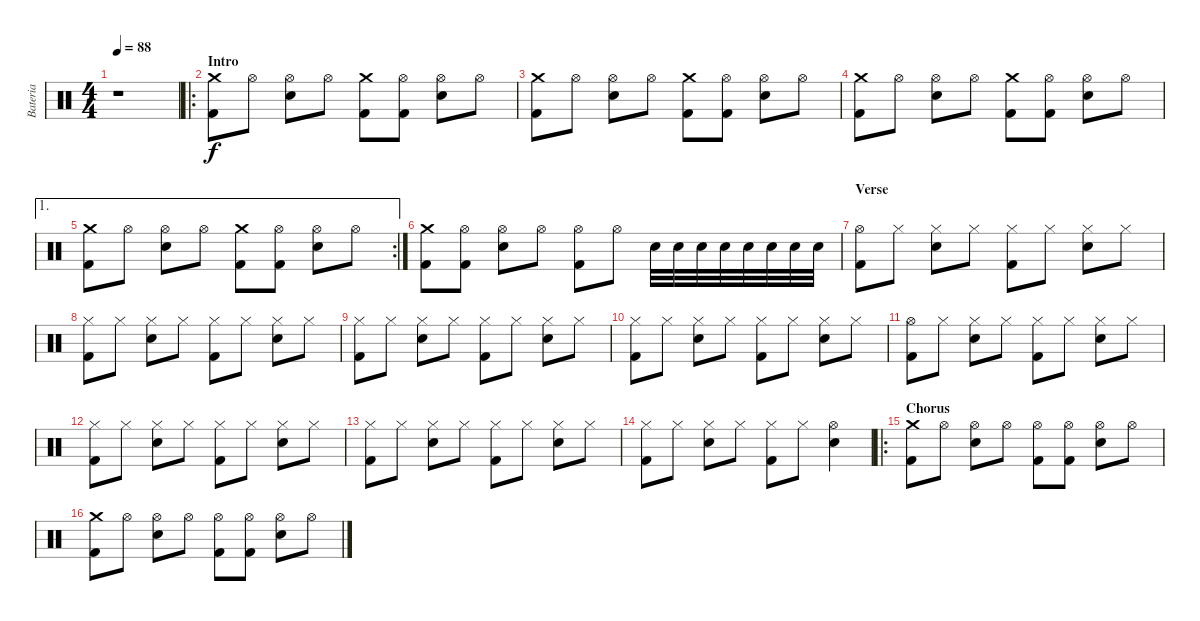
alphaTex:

\track ("Bateria" "Bateria") {instrument percussion}
\staff {score}
\articulation defaults
\ts (4 4)
\tempo 88
\clef neutral
\ks c
r.1{dy f} |
\ro
\section ("" "Intro")
("Crash medium (hit)" "Kick (hit) 2").8 "Hi-Hat (open)".8 ("Hi-Hat (open)" "Electric Snare (hit)").8 "Hi-Hat (open)".8 ("Crash medium (hit)" "Kick (hit) 2").8 ("Hi-Hat (open)" "Kick (hit) 2").8 ("Hi-Hat (open)" "Electric Snare (hit)").8 "Hi-Hat (open)".8 |
("Crash medium (hit)" "Kick (hit) 2").8 "Hi-Hat (open)".8 ("Hi-Hat (open)" "Electric Snare (hit)").8 "Hi-Hat (open)".8 ("Crash medium (hit)" "Kick (hit) 2").8 ("Hi-Hat (open)" "Kick (hit) 2").8 ("Hi-Hat (open)" "Electric Snare (hit)").8 "Hi-Hat (open)".8 |
("Crash medium (hit)" "Kick (hit) 2").8 "Hi-Hat (open)".8 ("Hi-Hat (open)" "Electric Snare (hit)").8 "Hi-Hat (open)".8 ("Crash medium (hit)" "Kick (hit) 2").8 ("Hi-Hat (open)" "Kick (hit) 2").8 ("Hi-Hat (open)" "Electric Snare (hit)").8 "Hi-Hat (open)".8 |
\ae 1
\rc 2
("Crash medium (hit)" "Kick (hit) 2").8 "Hi-Hat (open)".8 ("Hi-Hat (open)" "Electric Snare (hit)").8 "Hi-Hat (open)".8 ("Crash medium (hit)" "Kick (hit) 2").8 ("Hi-Hat (open)" "Kick (hit) 2").8 ("Hi-Hat (open)" "Electric Snare (hit)").8 "Hi-Hat (open)".8 |
("Crash medium (hit)" "Kick (hit) 2").8 ("Hi-Hat (open)" "Kick (hit) 2").8 ("Hi-Hat (open)" "Electric Snare (hit)").8 "Hi-Hat (open)".8 ("Hi-Hat (open)" "Kick (hit) 2").8 "Hi-Hat (open)".8 "Electric Snare (hit)".32 "Electric Snare (hit)".32 "Electric Snare (hit)".32 "Electric Snare (hit)".32 "Electric Snare (hit)".32 "Electric Snare (hit)".32 "Electric Snare (hit)".32 "Electric Snare (hit)".32 |
\section ("" "Verse")
("Hi-Hat (open)" "Kick (hit) 2").8 "Hi-Hat (closed)".8 ("Hi-Hat (closed)" "Electric Snare (hit)").8 "Hi-Hat (closed)".8 ("Hi-Hat (closed)" "Kick (hit) 2").8 "Hi-Hat (closed)".8 ("Hi-Hat (closed)" "Electric Snare (hit)").8 "Hi-Hat (closed)".8 |
("Hi-Hat (closed)" "Kick (hit) 2").8 "Hi-Hat (closed)".8 ("Hi-Hat (closed)" "Electric Snare (hit)").8 "Hi-Hat (closed)".8 ("Hi-Hat (closed)" "Kick (hit) 2").8 "Hi-Hat (closed)".8 ("Hi-Hat (closed)" "Electric Snare (hit)").8 "Hi-Hat (closed)".8 |
("Hi-Hat (closed)" "Kick (hit) 2").8 "Hi-Hat (closed)".8 ("Hi-Hat (closed)" "Electric Snare (hit)").8 "Hi-Hat (closed)".8 ("Hi-Hat (closed)" "Kick (hit) 2").8 "Hi-Hat (closed)".8 ("Hi-Hat (closed)" "Electric Snare (hit)").8 "Hi-Hat (closed)".8 |
("Hi-Hat (closed)" "Kick (hit) 2").8 "Hi-Hat (closed)".8 ("Hi-Hat (closed)" "Electric Snare (hit)").8 "Hi-Hat (closed)".8 ("Hi-Hat (closed)" "Kick (hit) 2").8 "Hi-Hat (closed)".8 ("Hi-Hat (closed)" "Electric Snare (hit)").8 "Hi-Hat (closed)".8 |
("Hi-Hat (open)" "Kick (hit) 2").8 "Hi-Hat (closed)".8 ("Hi-Hat (closed)" "Electric Snare (hit)").8 "Hi-Hat (closed)".8 ("Hi-Hat (closed)" "Kick (hit) 2").8 "Hi-Hat (closed)".8 ("Hi-Hat (closed)" "Electric Snare (hit)").8 "Hi-Hat (closed)".8 |
("Hi-Hat (closed)" "Kick (hit) 2").8 "Hi-Hat (closed)".8 ("Hi-Hat (closed)" "Electric Snare (hit)").8 "Hi-Hat (closed)".8 ("Hi-Hat (closed)" "Kick (hit) 2").8 "Hi-Hat (closed)".8 ("Hi-Hat (closed)" "Electric Snare (hit)").8 "Hi-Hat (closed)".8 |
("Hi-Hat (closed)" "Kick (hit) 2").8 "Hi-Hat (closed)".8 ("Hi-Hat (closed)" "Electric Snare (hit)").8 "Hi-Hat (closed)".8 ("Hi-Hat (closed)" "Kick (hit) 2").8 "Hi-Hat (closed)".8 ("Hi-Hat (closed)" "Electric Snare (hit)").8 "Hi-Hat (closed)".8 |
("Hi-Hat (closed)" "Kick (hit) 2").8 "Hi-Hat (closed)".8 ("Hi-Hat (closed)" "Electric Snare (hit)").8 "Hi-Hat (closed)".8 ("Hi-Hat (closed)" "Kick (hit) 2").8 "Hi-Hat (closed)".8 ("Hi-Hat (open)" "Electric Snare (hit)").4 |
\ro
\section ("" "Chorus")
("Crash medium (hit)" "Kick (hit) 2").8 "Hi-Hat (open)".8 ("Hi-Hat (open)" "Electric Snare (hit)").8 "Hi-Hat (open)".8 ("Hi-Hat (open)" "Kick (hit) 2").8 ("Hi-Hat (open)" "Kick (hit) 2").8 ("Hi-Hat (open)" "Electric Snare (hit)").8 "Hi-Hat (open)".8 |
("Crash medium (hit)" "Kick (hit) 2").8 "Hi-Hat (open)".8 ("Hi-Hat (open)" "Electric Snare (hit)").8 "Hi-Hat (open)".8 ("Hi-Hat (open)" "Kick (hit) 2").8 ("Hi-Hat (open)" "Kick (hit) 2").8 ("Hi-Hat (open)" "Electric Snare (hit)").8 "Hi-Hat (open)".8
